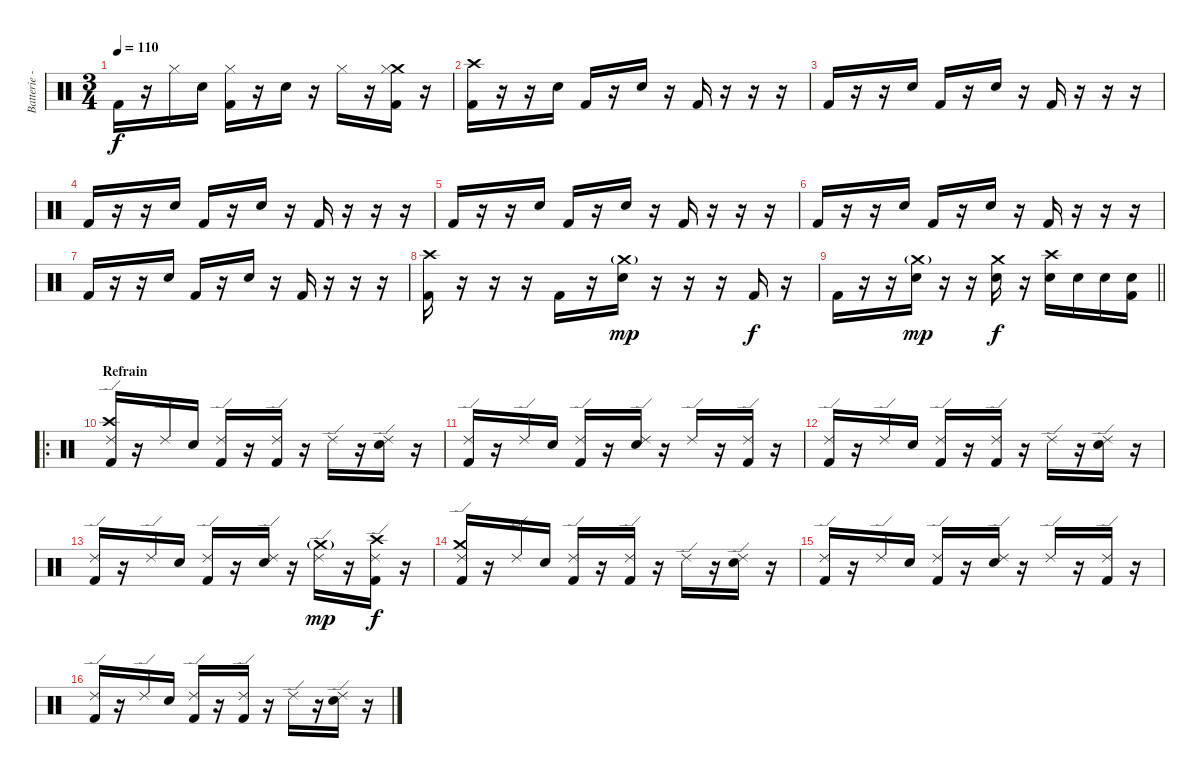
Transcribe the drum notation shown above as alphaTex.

\track ("Batterie - Toshiya" "Batterie -") {instrument percussion}
\staff {score}
\articulation defaults
\ts (3 4)
\tempo 110
\clef neutral
\ks c "Kick (hit) 2".16{dy f}
r.16 "Hi-Hat (closed)".16 "Electric Snare (hit)".16 ("Hi-Hat (closed)" "Kick (hit) 2").16 r.16 "Electric Snare (hit)".16 r.16 "Hi-Hat (closed)".16 r.16 ("Crash medium (hit)" "Hi-Hat (closed)" "Kick (hit) 2").16 r.16 |
("Crash high (hit)" "Kick (hit) 2").16 r.16 r.16 "Electric Snare (hit)".16 "Kick (hit) 2".16 r.16 "Electric Snare (hit)".16 r.16 "Kick (hit) 2".16 r.16 r.16 r.16 |
"Kick (hit) 2".16 r.16 r.16 "Electric Snare (hit)".16 "Kick (hit) 2".16 r.16 "Electric Snare (hit)".16 r.16 "Kick (hit) 2".16 r.16 r.16 r.16 |
"Kick (hit) 2".16 r.16 r.16 "Electric Snare (hit)".16 "Kick (hit) 2".16 r.16 "Electric Snare (hit)".16 r.16 "Kick (hit) 2".16 r.16 r.16 r.16 |
"Kick (hit) 2".16 r.16 r.16 "Electric Snare (hit)".16 "Kick (hit) 2".16 r.16 "Electric Snare (hit)".16 r.16 "Kick (hit) 2".16 r.16 r.16 r.16 |
"Kick (hit) 2".16 r.16 r.16 "Electric Snare (hit)".16 "Kick (hit) 2".16 r.16 "Electric Snare (hit)".16 r.16 "Kick (hit) 2".16 r.16 r.16 r.16 |
"Kick (hit) 2".16 r.16 r.16 "Electric Snare (hit)".16 "Kick (hit) 2".16 r.16 "Electric Snare (hit)".16 r.16 "Kick (hit) 2".16 r.16 r.16 r.16 |
("Crash high (hit)" "Kick (hit) 2").16 r.16 r.16 r.16 "Kick (hit) 2".16 r.16 ("Crash medium (hit)"{g} "Electric Snare (hit)").16{dy mp} r.16 r.16 r.16 "Kick (hit) 2".16{dy f} r.16 |
\barLineRight lightlight "Kick (hit) 2".16
r.16 r.16 ("Crash medium (hit)"{g} "Electric Snare (hit)").16{dy mp} r.16 r.16 ("Crash medium (hit)" "Electric Snare (hit)").16{dy f} r.16 ("Crash high (hit)" "Electric Snare (hit)").16 "Electric Snare (hit)".16 "Electric Snare (hit)".16 ("Electric Snare (hit)" "Kick (hit) 2").16 |
\ro
\section ("" "Refrain")
("Ride (edge) 2" "Crash high (hit)" "Kick (hit) 2").16 r.16 "Ride (edge) 2".16 "Electric Snare (hit)".16 ("Ride (edge) 2" "Kick (hit) 2").16 r.16 ("Ride (edge) 2" "Kick (hit) 2").16 r.16 "Ride (edge) 2".16 r.16 ("Ride (edge) 2" "Electric Snare (hit)").16 r.16 |
("Ride (edge) 2" "Kick (hit) 2").16 r.16 "Ride (edge) 2".16 "Electric Snare (hit)".16 ("Ride (edge) 2" "Kick (hit) 2").16 r.16 ("Ride (edge) 2" "Electric Snare (hit)").16 r.16 "Ride (edge) 2".16 r.16 ("Ride (edge) 2" "Kick (hit) 2").16 r.16 |
("Ride (edge) 2" "Kick (hit) 2").16 r.16 "Ride (edge) 2".16 "Electric Snare (hit)".16 ("Ride (edge) 2" "Kick (hit) 2").16 r.16 ("Ride (edge) 2" "Kick (hit) 2").16 r.16 "Ride (edge) 2".16 r.16 ("Ride (edge) 2" "Electric Snare (hit)").16 r.16 |
("Ride (edge) 2" "Kick (hit) 2").16 r.16 "Ride (edge) 2".16 "Electric Snare (hit)".16 ("Ride (edge) 2" "Kick (hit) 2").16 r.16 ("Ride (edge) 2" "Electric Snare (hit)").16 r.16 ("Ride (edge) 2" "Crash medium (hit)"{g}).16{dy mp} r.16 ("Ride (edge) 2" "Crash high (hit)" "Kick (hit) 2").16{dy f} r.16 |
("Ride (edge) 2" "Crash medium (hit)" "Kick (hit) 2").16 r.16 "Ride (edge) 2".16 "Electric Snare (hit)".16 ("Ride (edge) 2" "Kick (hit) 2").16 r.16 ("Ride (edge) 2" "Kick (hit) 2").16 r.16 "Ride (edge) 2".16 r.16 ("Ride (edge) 2" "Electric Snare (hit)").16 r.16 |
("Ride (edge) 2" "Kick (hit) 2").16 r.16 "Ride (edge) 2".16 "Electric Snare (hit)".16 ("Ride (edge) 2" "Kick (hit) 2").16 r.16 ("Ride (edge) 2" "Electric Snare (hit)").16 r.16 "Ride (edge) 2".16 r.16 ("Ride (edge) 2" "Kick (hit) 2").16 r.16 |
("Ride (edge) 2" "Kick (hit) 2").16 r.16 "Ride (edge) 2".16 "Electric Snare (hit)".16 ("Ride (edge) 2" "Kick (hit) 2").16 r.16 ("Ride (edge) 2" "Kick (hit) 2").16 r.16 "Ride (edge) 2".16 r.16 ("Ride (edge) 2" "Electric Snare (hit)").16 r.16
